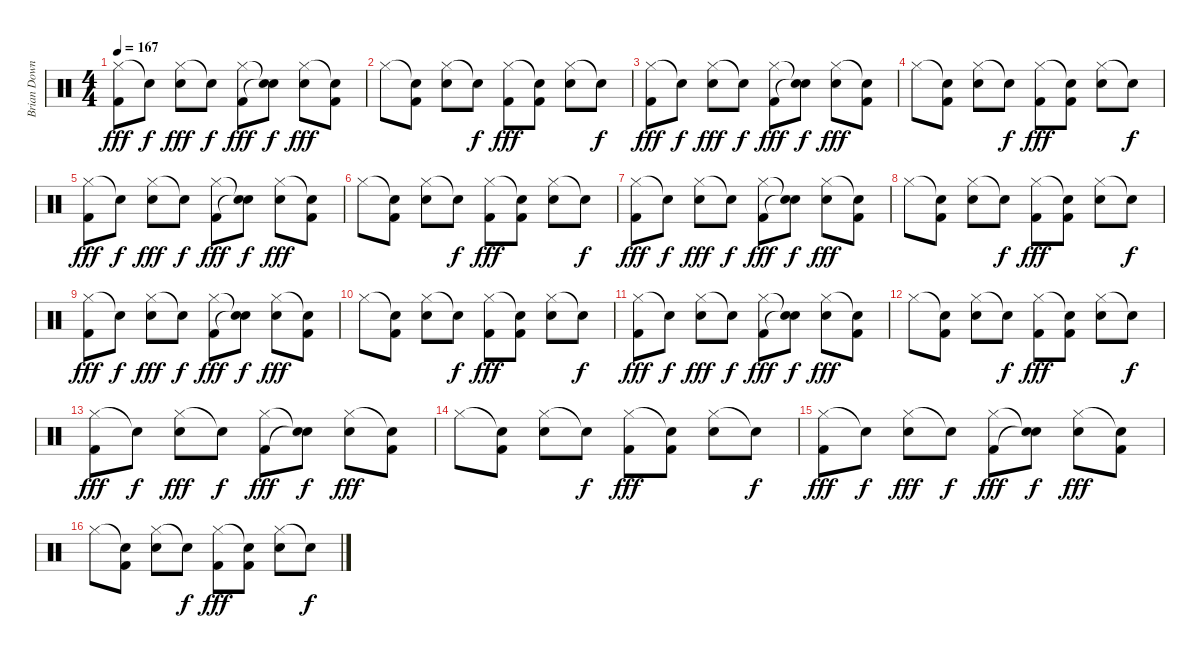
\track ("Brian Downey" "Brian Down") {instrument percussion}
\staff {score}
\articulation defaults
\ts (4 4)
\tempo 167
\clef neutral
\ks c
("Hi-Hat (closed)" "Kick (hit) 2").8{dy fff} "Snare (hit)"{t}.8{dy f} ("Hi-Hat (closed)" "Electric Snare (hit)").8{dy fff} "Snare (hit)"{t}.8{dy f} ("Hi-Hat (closed)" "Kick (hit) 2").8{dy fff} ("Snare (hit)"{t} "Electric Snare (hit)"{t}).8{dy f} ("Hi-Hat (closed)" "Electric Snare (hit)").8{dy fff} ("Snare (hit)"{t} "Kick (hit) 2").8 |
"Hi-Hat (closed)".8 ("Snare (hit)"{t} "Kick (hit) 2").8 ("Hi-Hat (closed)" "Electric Snare (hit)").8 "Snare (hit)"{t}.8{dy f} ("Hi-Hat (closed)" "Kick (hit) 2").8{dy fff} ("Snare (hit)"{t} "Kick (hit) 2").8 ("Hi-Hat (closed)" "Electric Snare (hit)").8 "Snare (hit)"{t}.8{dy f} |
("Hi-Hat (closed)" "Kick (hit) 2").8{dy fff} "Snare (hit)"{t}.8{dy f} ("Hi-Hat (closed)" "Electric Snare (hit)").8{dy fff} "Snare (hit)"{t}.8{dy f} ("Hi-Hat (closed)" "Kick (hit) 2").8{dy fff} ("Snare (hit)"{t} "Electric Snare (hit)"{t}).8{dy f} ("Hi-Hat (closed)" "Electric Snare (hit)").8{dy fff} ("Snare (hit)"{t} "Kick (hit) 2").8 |
"Hi-Hat (closed)".8 ("Snare (hit)"{t} "Kick (hit) 2").8 ("Hi-Hat (closed)" "Electric Snare (hit)").8 "Snare (hit)"{t}.8{dy f} ("Hi-Hat (closed)" "Kick (hit) 2").8{dy fff} ("Snare (hit)"{t} "Kick (hit) 2").8 ("Hi-Hat (closed)" "Electric Snare (hit)").8 "Snare (hit)"{t}.8{dy f} |
("Hi-Hat (closed)" "Kick (hit) 2").8{dy fff} "Snare (hit)"{t}.8{dy f} ("Hi-Hat (closed)" "Electric Snare (hit)").8{dy fff} "Snare (hit)"{t}.8{dy f} ("Hi-Hat (closed)" "Kick (hit) 2").8{dy fff} ("Snare (hit)"{t} "Electric Snare (hit)"{t}).8{dy f} ("Hi-Hat (closed)" "Electric Snare (hit)").8{dy fff} ("Snare (hit)"{t} "Kick (hit) 2").8 |
"Hi-Hat (closed)".8 ("Snare (hit)"{t} "Kick (hit) 2").8 ("Hi-Hat (closed)" "Electric Snare (hit)").8 "Snare (hit)"{t}.8{dy f} ("Hi-Hat (closed)" "Kick (hit) 2").8{dy fff} ("Snare (hit)"{t} "Kick (hit) 2").8 ("Hi-Hat (closed)" "Electric Snare (hit)").8 "Snare (hit)"{t}.8{dy f} |
("Hi-Hat (closed)" "Kick (hit) 2").8{dy fff} "Snare (hit)"{t}.8{dy f} ("Hi-Hat (closed)" "Electric Snare (hit)").8{dy fff} "Snare (hit)"{t}.8{dy f} ("Hi-Hat (closed)" "Kick (hit) 2").8{dy fff} ("Snare (hit)"{t} "Electric Snare (hit)"{t}).8{dy f} ("Hi-Hat (closed)" "Electric Snare (hit)").8{dy fff} ("Snare (hit)"{t} "Kick (hit) 2").8 |
"Hi-Hat (closed)".8 ("Snare (hit)"{t} "Kick (hit) 2").8 ("Hi-Hat (closed)" "Electric Snare (hit)").8 "Snare (hit)"{t}.8{dy f} ("Hi-Hat (closed)" "Kick (hit) 2").8{dy fff} ("Snare (hit)"{t} "Kick (hit) 2").8 ("Hi-Hat (closed)" "Electric Snare (hit)").8 "Snare (hit)"{t}.8{dy f} |
("Hi-Hat (closed)" "Kick (hit) 2").8{dy fff} "Snare (hit)"{t}.8{dy f} ("Hi-Hat (closed)" "Electric Snare (hit)").8{dy fff} "Snare (hit)"{t}.8{dy f} ("Hi-Hat (closed)" "Kick (hit) 2").8{dy fff} ("Snare (hit)"{t} "Electric Snare (hit)"{t}).8{dy f} ("Hi-Hat (closed)" "Electric Snare (hit)").8{dy fff} ("Snare (hit)"{t} "Kick (hit) 2").8 |
"Hi-Hat (closed)".8 ("Snare (hit)"{t} "Kick (hit) 2").8 ("Hi-Hat (closed)" "Electric Snare (hit)").8 "Snare (hit)"{t}.8{dy f} ("Hi-Hat (closed)" "Kick (hit) 2").8{dy fff} ("Snare (hit)"{t} "Kick (hit) 2").8 ("Hi-Hat (closed)" "Electric Snare (hit)").8 "Snare (hit)"{t}.8{dy f} |
("Hi-Hat (closed)" "Kick (hit) 2").8{dy fff} "Snare (hit)"{t}.8{dy f} ("Hi-Hat (closed)" "Electric Snare (hit)").8{dy fff} "Snare (hit)"{t}.8{dy f} ("Hi-Hat (closed)" "Kick (hit) 2").8{dy fff} ("Snare (hit)"{t} "Electric Snare (hit)"{t}).8{dy f} ("Hi-Hat (closed)" "Electric Snare (hit)").8{dy fff} ("Snare (hit)"{t} "Kick (hit) 2").8 |
"Hi-Hat (closed)".8 ("Snare (hit)"{t} "Kick (hit) 2").8 ("Hi-Hat (closed)" "Electric Snare (hit)").8 "Snare (hit)"{t}.8{dy f} ("Hi-Hat (closed)" "Kick (hit) 2").8{dy fff} ("Snare (hit)"{t} "Kick (hit) 2").8 ("Hi-Hat (closed)" "Electric Snare (hit)").8 "Snare (hit)"{t}.8{dy f} |
("Hi-Hat (closed)" "Kick (hit) 2").8{dy fff} "Snare (hit)"{t}.8{dy f} ("Hi-Hat (closed)" "Electric Snare (hit)").8{dy fff} "Snare (hit)"{t}.8{dy f} ("Hi-Hat (closed)" "Kick (hit) 2").8{dy fff} ("Snare (hit)"{t} "Electric Snare (hit)"{t}).8{dy f} ("Hi-Hat (closed)" "Electric Snare (hit)").8{dy fff} ("Snare (hit)"{t} "Kick (hit) 2").8 |
"Hi-Hat (closed)".8 ("Snare (hit)"{t} "Kick (hit) 2").8 ("Hi-Hat (closed)" "Electric Snare (hit)").8 "Snare (hit)"{t}.8{dy f} ("Hi-Hat (closed)" "Kick (hit) 2").8{dy fff} ("Snare (hit)"{t} "Kick (hit) 2").8 ("Hi-Hat (closed)" "Electric Snare (hit)").8 "Snare (hit)"{t}.8{dy f} |
("Hi-Hat (closed)" "Kick (hit) 2").8{dy fff} "Snare (hit)"{t}.8{dy f} ("Hi-Hat (closed)" "Electric Snare (hit)").8{dy fff} "Snare (hit)"{t}.8{dy f} ("Hi-Hat (closed)" "Kick (hit) 2").8{dy fff} ("Snare (hit)"{t} "Electric Snare (hit)"{t}).8{dy f} ("Hi-Hat (closed)" "Electric Snare (hit)").8{dy fff} ("Snare (hit)"{t} "Kick (hit) 2").8 |
"Hi-Hat (closed)".8 ("Snare (hit)"{t} "Kick (hit) 2").8 ("Hi-Hat (closed)" "Electric Snare (hit)").8 "Snare (hit)"{t}.8{dy f} ("Hi-Hat (closed)" "Kick (hit) 2").8{dy fff} ("Snare (hit)"{t} "Kick (hit) 2").8 ("Hi-Hat (closed)" "Electric Snare (hit)").8 "Snare (hit)"{t}.8{dy f}
